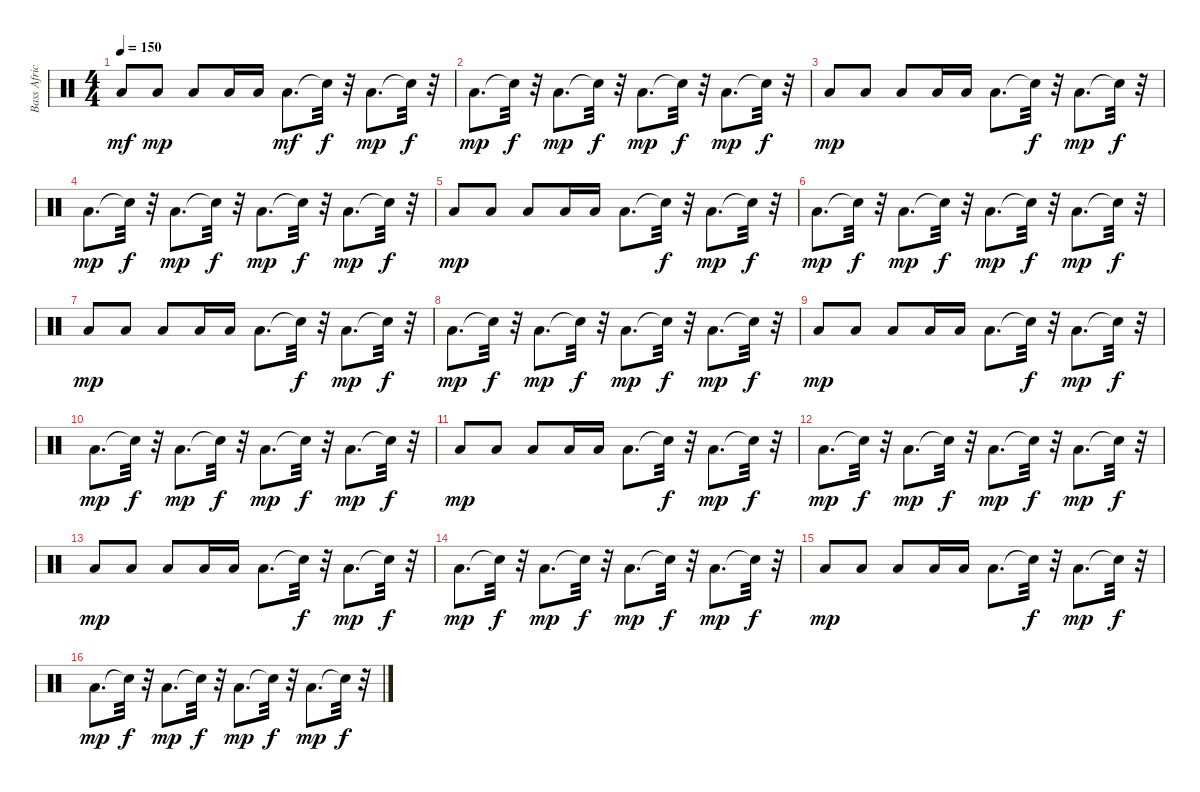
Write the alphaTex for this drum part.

\track ("Bass African Drum" "Bass Afric") {instrument percussion}
\staff {score}
\articulation defaults
\ts (4 4)
\tempo 150
\clef neutral
\ks c "Low Floor Tom (hit)".8{dy mf} "Low Floor Tom (hit)".8{dy mp} "Low Floor Tom (hit)".8 "Low Floor Tom (hit)".16 "Low Floor Tom (hit)".16 "Low Floor Tom (hit)".8{d dy mf} "Snare (hit)"{t}.32{dy f}
r.32 "Low Floor Tom (hit)".8{d dy mp} "Snare (hit)"{t}.32{dy f} r.32 |
"Low Floor Tom (hit)".8{d dy mp} "Snare (hit)"{t}.32{dy f} r.32 "Low Floor Tom (hit)".8{d dy mp} "Snare (hit)"{t}.32{dy f} r.32 "Low Floor Tom (hit)".8{d dy mp} "Snare (hit)"{t}.32{dy f} r.32 "Low Floor Tom (hit)".8{d dy mp} "Snare (hit)"{t}.32{dy f} r.32 |
"Low Floor Tom (hit)".8{dy mp} "Low Floor Tom (hit)".8 "Low Floor Tom (hit)".8 "Low Floor Tom (hit)".16 "Low Floor Tom (hit)".16 "Low Floor Tom (hit)".8{d} "Snare (hit)"{t}.32{dy f} r.32 "Low Floor Tom (hit)".8{d dy mp} "Snare (hit)"{t}.32{dy f} r.32 |
"Low Floor Tom (hit)".8{d dy mp} "Snare (hit)"{t}.32{dy f} r.32 "Low Floor Tom (hit)".8{d dy mp} "Snare (hit)"{t}.32{dy f} r.32 "Low Floor Tom (hit)".8{d dy mp} "Snare (hit)"{t}.32{dy f} r.32 "Low Floor Tom (hit)".8{d dy mp} "Snare (hit)"{t}.32{dy f} r.32 |
"Low Floor Tom (hit)".8{dy mp} "Low Floor Tom (hit)".8 "Low Floor Tom (hit)".8 "Low Floor Tom (hit)".16 "Low Floor Tom (hit)".16 "Low Floor Tom (hit)".8{d} "Snare (hit)"{t}.32{dy f} r.32 "Low Floor Tom (hit)".8{d dy mp} "Snare (hit)"{t}.32{dy f} r.32 |
"Low Floor Tom (hit)".8{d dy mp} "Snare (hit)"{t}.32{dy f} r.32 "Low Floor Tom (hit)".8{d dy mp} "Snare (hit)"{t}.32{dy f} r.32 "Low Floor Tom (hit)".8{d dy mp} "Snare (hit)"{t}.32{dy f} r.32 "Low Floor Tom (hit)".8{d dy mp} "Snare (hit)"{t}.32{dy f} r.32 |
"Low Floor Tom (hit)".8{dy mp} "Low Floor Tom (hit)".8 "Low Floor Tom (hit)".8 "Low Floor Tom (hit)".16 "Low Floor Tom (hit)".16 "Low Floor Tom (hit)".8{d} "Snare (hit)"{t}.32{dy f} r.32 "Low Floor Tom (hit)".8{d dy mp} "Snare (hit)"{t}.32{dy f} r.32 |
"Low Floor Tom (hit)".8{d dy mp} "Snare (hit)"{t}.32{dy f} r.32 "Low Floor Tom (hit)".8{d dy mp} "Snare (hit)"{t}.32{dy f} r.32 "Low Floor Tom (hit)".8{d dy mp} "Snare (hit)"{t}.32{dy f} r.32 "Low Floor Tom (hit)".8{d dy mp} "Snare (hit)"{t}.32{dy f} r.32 |
"Low Floor Tom (hit)".8{dy mp} "Low Floor Tom (hit)".8 "Low Floor Tom (hit)".8 "Low Floor Tom (hit)".16 "Low Floor Tom (hit)".16 "Low Floor Tom (hit)".8{d} "Snare (hit)"{t}.32{dy f} r.32 "Low Floor Tom (hit)".8{d dy mp} "Snare (hit)"{t}.32{dy f} r.32 |
"Low Floor Tom (hit)".8{d dy mp} "Snare (hit)"{t}.32{dy f} r.32 "Low Floor Tom (hit)".8{d dy mp} "Snare (hit)"{t}.32{dy f} r.32 "Low Floor Tom (hit)".8{d dy mp} "Snare (hit)"{t}.32{dy f} r.32 "Low Floor Tom (hit)".8{d dy mp} "Snare (hit)"{t}.32{dy f} r.32 |
"Low Floor Tom (hit)".8{dy mp} "Low Floor Tom (hit)".8 "Low Floor Tom (hit)".8 "Low Floor Tom (hit)".16 "Low Floor Tom (hit)".16 "Low Floor Tom (hit)".8{d} "Snare (hit)"{t}.32{dy f} r.32 "Low Floor Tom (hit)".8{d dy mp} "Snare (hit)"{t}.32{dy f} r.32 |
"Low Floor Tom (hit)".8{d dy mp} "Snare (hit)"{t}.32{dy f} r.32 "Low Floor Tom (hit)".8{d dy mp} "Snare (hit)"{t}.32{dy f} r.32 "Low Floor Tom (hit)".8{d dy mp} "Snare (hit)"{t}.32{dy f} r.32 "Low Floor Tom (hit)".8{d dy mp} "Snare (hit)"{t}.32{dy f} r.32 |
"Low Floor Tom (hit)".8{dy mp} "Low Floor Tom (hit)".8 "Low Floor Tom (hit)".8 "Low Floor Tom (hit)".16 "Low Floor Tom (hit)".16 "Low Floor Tom (hit)".8{d} "Snare (hit)"{t}.32{dy f} r.32 "Low Floor Tom (hit)".8{d dy mp} "Snare (hit)"{t}.32{dy f} r.32 |
"Low Floor Tom (hit)".8{d dy mp} "Snare (hit)"{t}.32{dy f} r.32 "Low Floor Tom (hit)".8{d dy mp} "Snare (hit)"{t}.32{dy f} r.32 "Low Floor Tom (hit)".8{d dy mp} "Snare (hit)"{t}.32{dy f} r.32 "Low Floor Tom (hit)".8{d dy mp} "Snare (hit)"{t}.32{dy f} r.32 |
"Low Floor Tom (hit)".8{dy mp} "Low Floor Tom (hit)".8 "Low Floor Tom (hit)".8 "Low Floor Tom (hit)".16 "Low Floor Tom (hit)".16 "Low Floor Tom (hit)".8{d} "Snare (hit)"{t}.32{dy f} r.32 "Low Floor Tom (hit)".8{d dy mp} "Snare (hit)"{t}.32{dy f} r.32 |
"Low Floor Tom (hit)".8{d dy mp} "Snare (hit)"{t}.32{dy f} r.32 "Low Floor Tom (hit)".8{d dy mp} "Snare (hit)"{t}.32{dy f} r.32 "Low Floor Tom (hit)".8{d dy mp} "Snare (hit)"{t}.32{dy f} r.32 "Low Floor Tom (hit)".8{d dy mp} "Snare (hit)"{t}.32{dy f} r.32
